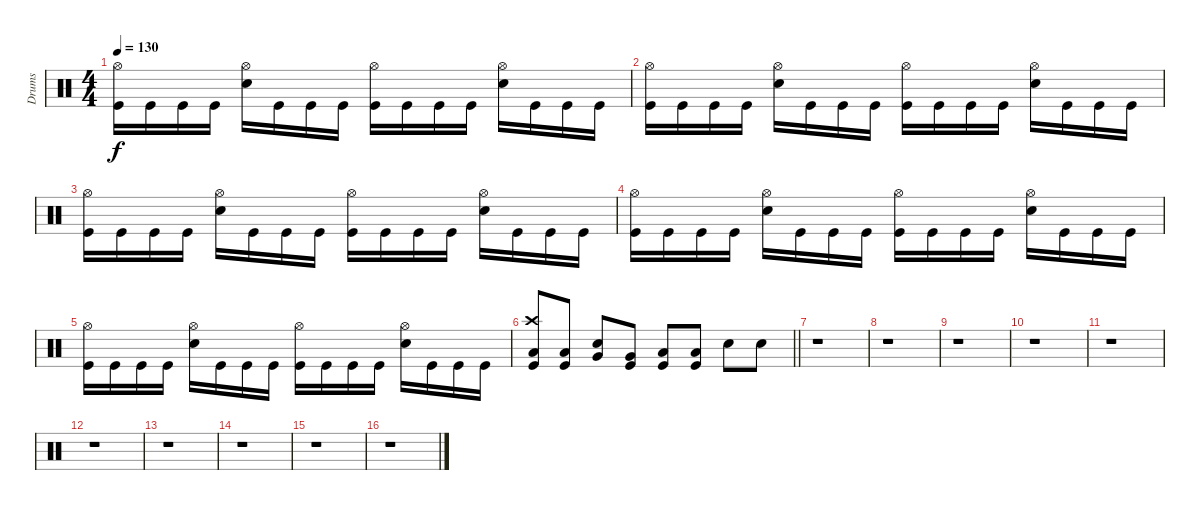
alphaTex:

\track ("Drums" "Drums") {instrument percussion}
\staff {score}
\articulation defaults
\ts (4 4)
\tempo 130
\clef neutral
\ks c
("Hi-Hat (open)" "Kick (hit)").16{dy f} "Kick (hit)".16 "Kick (hit)".16 "Kick (hit)".16 ("Hi-Hat (open)" "Electric Snare (hit)").16 "Kick (hit)".16 "Kick (hit)".16 "Kick (hit)".16 ("Hi-Hat (open)" "Kick (hit)").16 "Kick (hit)".16 "Kick (hit)".16 "Kick (hit)".16 ("Hi-Hat (open)" "Electric Snare (hit)").16 "Kick (hit)".16 "Kick (hit)".16 "Kick (hit)".16 |
("Hi-Hat (open)" "Kick (hit)").16 "Kick (hit)".16 "Kick (hit)".16 "Kick (hit)".16 ("Hi-Hat (open)" "Electric Snare (hit)").16 "Kick (hit)".16 "Kick (hit)".16 "Kick (hit)".16 ("Hi-Hat (open)" "Kick (hit)").16 "Kick (hit)".16 "Kick (hit)".16 "Kick (hit)".16 ("Hi-Hat (open)" "Electric Snare (hit)").16 "Kick (hit)".16 "Kick (hit)".16 "Kick (hit)".16 |
("Hi-Hat (open)" "Kick (hit)").16 "Kick (hit)".16 "Kick (hit)".16 "Kick (hit)".16 ("Hi-Hat (open)" "Electric Snare (hit)").16 "Kick (hit)".16 "Kick (hit)".16 "Kick (hit)".16 ("Hi-Hat (open)" "Kick (hit)").16 "Kick (hit)".16 "Kick (hit)".16 "Kick (hit)".16 ("Hi-Hat (open)" "Electric Snare (hit)").16 "Kick (hit)".16 "Kick (hit)".16 "Kick (hit)".16 |
("Hi-Hat (open)" "Kick (hit)").16 "Kick (hit)".16 "Kick (hit)".16 "Kick (hit)".16 ("Hi-Hat (open)" "Electric Snare (hit)").16 "Kick (hit)".16 "Kick (hit)".16 "Kick (hit)".16 ("Hi-Hat (open)" "Kick (hit)").16 "Kick (hit)".16 "Kick (hit)".16 "Kick (hit)".16 ("Hi-Hat (open)" "Electric Snare (hit)").16 "Kick (hit)".16 "Kick (hit)".16 "Kick (hit)".16 |
("Hi-Hat (open)" "Kick (hit)").16 "Kick (hit)".16 "Kick (hit)".16 "Kick (hit)".16 ("Hi-Hat (open)" "Electric Snare (hit)").16 "Kick (hit)".16 "Kick (hit)".16 "Kick (hit)".16 ("Hi-Hat (open)" "Kick (hit)").16 "Kick (hit)".16 "Kick (hit)".16 "Kick (hit)".16 ("Hi-Hat (open)" "Electric Snare (hit)").16 "Kick (hit)".16 "Kick (hit)".16 "Kick (hit)".16 |
\barLineRight lightlight
("Crash high (hit)" "Low Floor Tom (hit)" "Kick (hit)").8 ("Low Floor Tom (hit)" "Kick (hit)").8 ("Very Low Tom (hit)" "Electric Snare (hit)").8 ("Very Low Tom (hit)" "Kick (hit)").8 ("Low Tom (hit)" "Kick (hit)").8 ("Low Tom (hit)" "Kick (hit)").8 "Electric Snare (hit)".8 "Electric Snare (hit)".8 |
\section ("" "")
r.1 |
r.1 |
r.1 |
r.1 |
r.1 |
r.1 |
r.1 |
r.1 |
r.1 |
r.1
